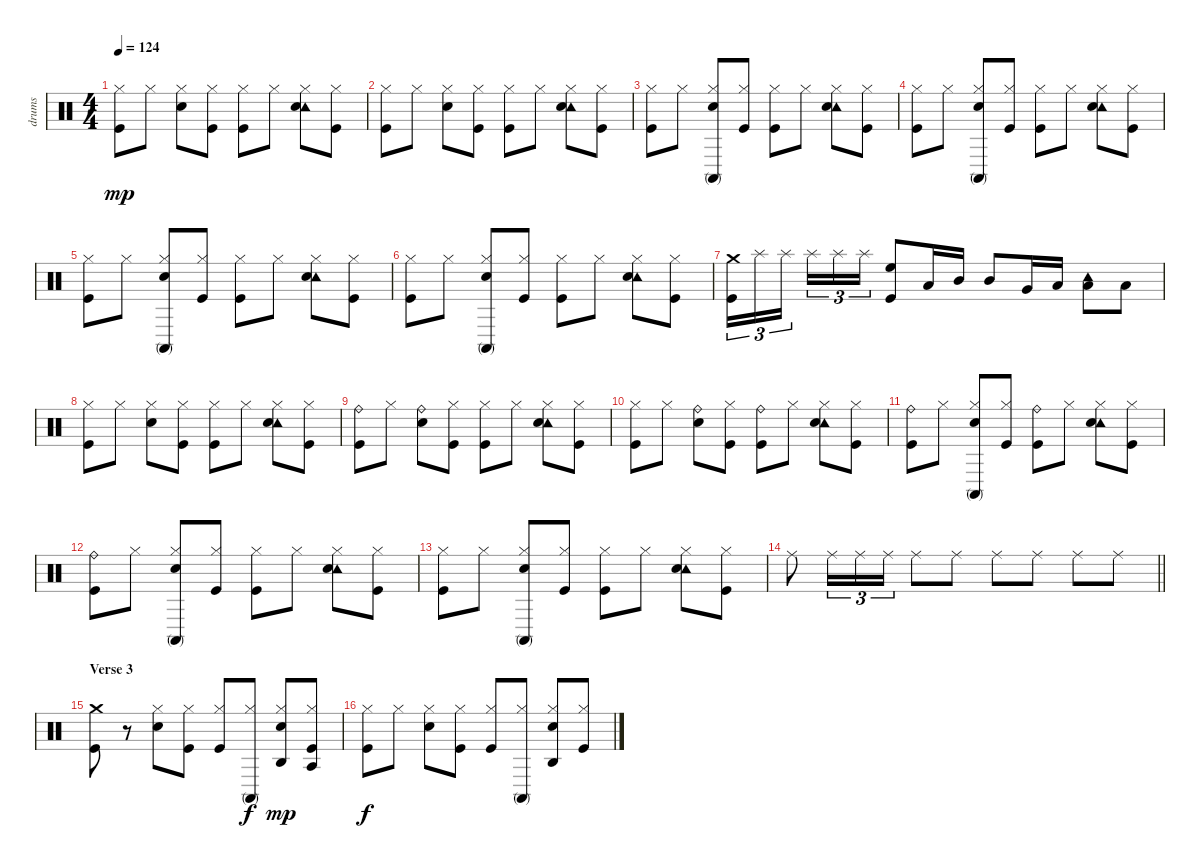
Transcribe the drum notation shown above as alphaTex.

\track ("drums" "drums") {instrument percussion}
\staff {score}
\articulation defaults
\ts (4 4)
\tempo 124
\clef neutral
\ks c
("Hi-Hat (closed)" "Kick (hit)").8{dy mp} "Hi-Hat (closed)".8 ("Electric Snare (hit)" "Hi-Hat (closed)").8 ("Hi-Hat (closed)" "Kick (hit)").8 ("Hi-Hat (closed)" "Kick (hit)").8 "Hi-Hat (closed)".8 ("Tambourine (hit)" "Electric Snare (hit)" "Hi-Hat (closed)").8 ("Hi-Hat (closed)" "Kick (hit)").8 |
("Hi-Hat (closed)" "Kick (hit)").8 "Hi-Hat (closed)".8 ("Electric Snare (hit)" "Hi-Hat (closed)").8 ("Hi-Hat (closed)" "Kick (hit)").8 ("Hi-Hat (closed)" "Kick (hit)").8 "Hi-Hat (closed)".8 ("Tambourine (hit)" "Electric Snare (hit)" "Hi-Hat (closed)").8 ("Hi-Hat (closed)" "Kick (hit)").8 |
("Hi-Hat (closed)" "Kick (hit)").8 "Hi-Hat (closed)".8 ("Conga high (mute)" "Electric Snare (hit)" "Hi-Hat (closed)").8 ("Hi-Hat (closed)" "Kick (hit)").8 ("Hi-Hat (closed)" "Kick (hit)").8 "Hi-Hat (closed)".8 ("Tambourine (hit)" "Electric Snare (hit)" "Hi-Hat (closed)").8 ("Hi-Hat (closed)" "Kick (hit)").8 |
("Hi-Hat (closed)" "Kick (hit)").8 "Hi-Hat (closed)".8 ("Conga high (mute)" "Electric Snare (hit)" "Hi-Hat (closed)").8 ("Hi-Hat (closed)" "Kick (hit)").8 ("Hi-Hat (closed)" "Kick (hit)").8 "Hi-Hat (closed)".8 ("Tambourine (hit)" "Electric Snare (hit)" "Hi-Hat (closed)").8 ("Hi-Hat (closed)" "Kick (hit)").8 |
("Hi-Hat (closed)" "Kick (hit)").8 "Hi-Hat (closed)".8 ("Conga high (mute)" "Electric Snare (hit)" "Hi-Hat (closed)").8 ("Hi-Hat (closed)" "Kick (hit)").8 ("Hi-Hat (closed)" "Kick (hit)").8 "Hi-Hat (closed)".8 ("Tambourine (hit)" "Electric Snare (hit)" "Hi-Hat (closed)").8 ("Hi-Hat (closed)" "Kick (hit)").8 |
("Hi-Hat (closed)" "Kick (hit)").8 "Hi-Hat (closed)".8 ("Conga high (mute)" "Electric Snare (hit)" "Hi-Hat (closed)").8 ("Hi-Hat (closed)" "Kick (hit)").8 ("Hi-Hat (closed)" "Kick (hit)").8 "Hi-Hat (closed)".8 ("Tambourine (hit)" "Electric Snare (hit)" "Hi-Hat (closed)").8 ("Hi-Hat (closed)" "Kick (hit)").8 |
("Crash medium (hit)" "Kick (hit)").16{tu (3 2)} "Splash (hit)".16{tu (3 2)} "Splash (hit)".16{tu (3 2) beam splitsecondary} "Splash (hit)".16{tu (3 2)} "Splash (hit)".16{tu (3 2)} "Splash (hit)".16{tu (3 2)} ("High Floor Tom (hit)" "Kick (hit)").8 "Low Tom (hit)".16 "Mid Tom (hit)".16 "Mid Tom (hit)".8 "Very Low Tom (hit)".16 "Low Tom (hit)".16 ("Tambourine (hit)" "Low Tom (hit)").8 "Low Floor Tom (hit)".8 |
("Hi-Hat (closed)" "Kick (hit)").8 "Hi-Hat (closed)".8 ("Electric Snare (hit)" "Hi-Hat (closed)").8 ("Hi-Hat (closed)" "Kick (hit)").8 ("Hi-Hat (closed)" "Kick (hit)").8 "Hi-Hat (closed)".8 ("Tambourine (hit)" "Electric Snare (hit)" "Hi-Hat (closed)").8 ("Hi-Hat (closed)" "Kick (hit)").8 |
("Ride (bell)" "Kick (hit)").8 "Hi-Hat (closed)".8 ("Ride (bell)" "Electric Snare (hit)").8 ("Hi-Hat (closed)" "Kick (hit)").8 ("Hi-Hat (closed)" "Kick (hit)").8 "Hi-Hat (closed)".8 ("Tambourine (hit)" "Electric Snare (hit)" "Hi-Hat (closed)").8 ("Hi-Hat (closed)" "Kick (hit)").8 |
("Hi-Hat (closed)" "Kick (hit)").8 "Hi-Hat (closed)".8 ("Ride (bell)" "Electric Snare (hit)").8 ("Hi-Hat (closed)" "Kick (hit)").8 ("Ride (bell)" "Kick (hit)").8 "Hi-Hat (closed)".8 ("Tambourine (hit)" "Electric Snare (hit)" "Hi-Hat (closed)").8 ("Hi-Hat (closed)" "Kick (hit)").8 |
("Ride (bell)" "Kick (hit)").8 "Hi-Hat (closed)".8 ("Conga high (mute)" "Electric Snare (hit)" "Hi-Hat (closed)").8 ("Hi-Hat (closed)" "Kick (hit)").8 ("Ride (bell)" "Kick (hit)").8 "Hi-Hat (closed)".8 ("Tambourine (hit)" "Electric Snare (hit)" "Hi-Hat (closed)").8 ("Hi-Hat (closed)" "Kick (hit)").8 |
("Ride (bell)" "Kick (hit)").8 "Hi-Hat (closed)".8 ("Conga high (mute)" "Electric Snare (hit)" "Hi-Hat (closed)").8 ("Hi-Hat (closed)" "Kick (hit)").8 ("Hi-Hat (closed)" "Kick (hit)").8 "Hi-Hat (closed)".8 ("Tambourine (hit)" "Electric Snare (hit)" "Hi-Hat (closed)").8 ("Hi-Hat (closed)" "Kick (hit)").8 |
("Hi-Hat (closed)" "Kick (hit)").8 "Hi-Hat (closed)".8 ("Conga high (mute)" "Electric Snare (hit)" "Hi-Hat (closed)").8 ("Hi-Hat (closed)" "Kick (hit)").8 ("Hi-Hat (closed)" "Kick (hit)").8 "Hi-Hat (closed)".8 ("Tambourine (hit)" "Electric Snare (hit)" "Hi-Hat (closed)").8 ("Hi-Hat (closed)" "Kick (hit)").8 |
\barLineRight lightlight "Ride (middle)".8 "Ride (middle)".16{tu (3 2)} "Ride (middle)".16{tu (3 2)} "Ride (middle)".16{tu (3 2)} "Ride (middle)".8 "Ride (middle)".8 "Ride (middle)".8 "Ride (middle)".8 "Ride (middle)".8 "Ride (middle)".8
|
\section ("" "Verse 3")
("Crash medium (hit)" "Kick (hit)").8 r.8 ("Electric Snare (hit)" "Hi-Hat (closed)").8 ("Hi-Hat (closed)" "Kick (hit)").8 ("Hi-Hat (closed)" "Kick (hit)").8 ("Conga high (mute)" "Hi-Hat (closed)").8{dy f} ("Agogo high (hit)" "Electric Snare (hit)" "Hi-Hat (closed)").8{dy mp} ("Agogo tow (hit)" "Hi-Hat (closed)" "Kick (hit)").8 |
("Hi-Hat (closed)" "Kick (hit)").8{dy f} "Hi-Hat (closed)".8 ("Electric Snare (hit)" "Hi-Hat (closed)").8 ("Hi-Hat (closed)" "Kick (hit)").8 ("Hi-Hat (closed)" "Kick (hit)").8 ("Conga high (mute)" "Hi-Hat (closed)").8 ("Agogo high (hit)" "Electric Snare (hit)" "Hi-Hat (closed)").8 ("Hi-Hat (closed)" "Kick (hit)").8
